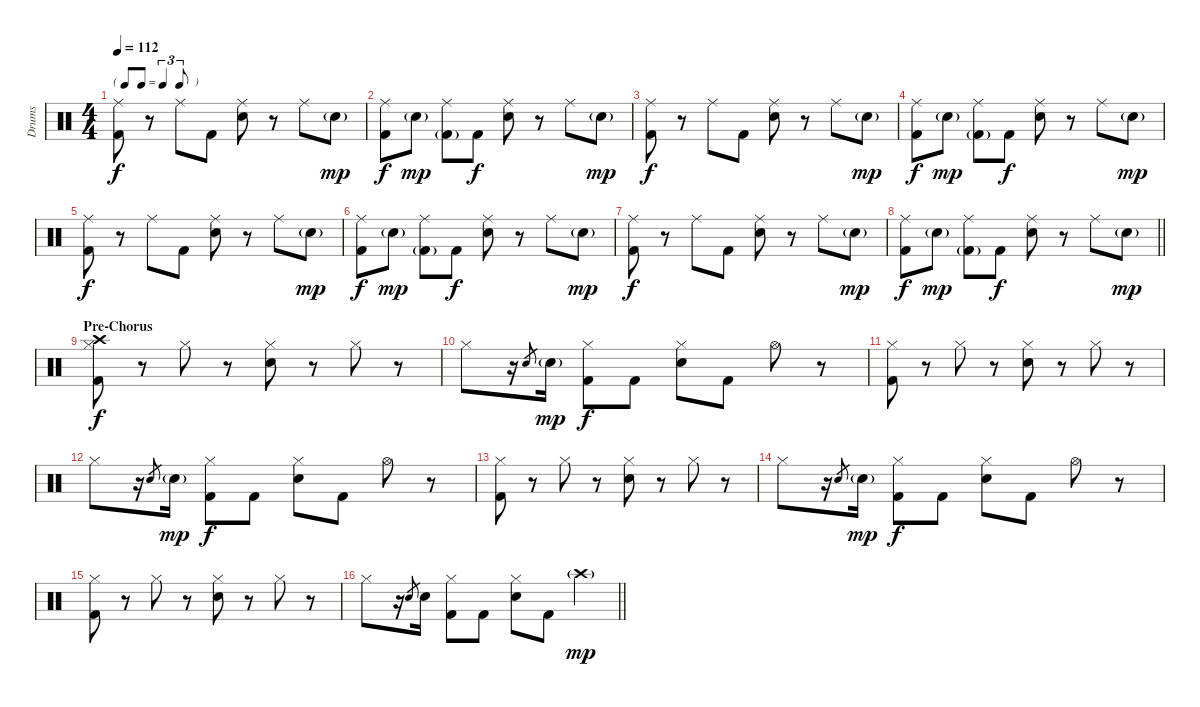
\track ("Drums" "Drums") {instrument percussion}
\staff {score}
\articulation defaults
\ts (4 4)
\tf triplet8th
\tempo 112
\clef neutral
\ks c
("Ride (middle)" "Kick (hit) 2").8{dy f} r.8 "Ride (middle)".8 "Kick (hit) 2".8 ("Ride (middle)" "Snare (hit) 2").8 r.8 "Ride (middle)".8 "Snare (hit) 2"{g}.8{dy mp} |
("Ride (middle)" "Kick (hit) 2").8{dy f} "Snare (hit) 2"{g}.8{dy mp} ("Ride (middle)" "Kick (hit) 2"{g}).8 "Kick (hit) 2".8{dy f} ("Ride (middle)" "Snare (hit) 2").8 r.8 "Ride (middle)".8 "Snare (hit) 2"{g}.8{dy mp} |
("Ride (middle)" "Kick (hit) 2").8{dy f} r.8 "Ride (middle)".8 "Kick (hit) 2".8 ("Ride (middle)" "Snare (hit) 2").8 r.8 "Ride (middle)".8 "Snare (hit) 2"{g}.8{dy mp} |
("Ride (middle)" "Kick (hit) 2").8{dy f} "Snare (hit) 2"{g}.8{dy mp} ("Ride (middle)" "Kick (hit) 2"{g}).8 "Kick (hit) 2".8{dy f} ("Ride (middle)" "Snare (hit) 2").8 r.8 "Ride (middle)".8 "Snare (hit) 2"{g}.8{dy mp} |
("Ride (middle)" "Kick (hit) 2").8{dy f} r.8 "Ride (middle)".8 "Kick (hit) 2".8 ("Ride (middle)" "Snare (hit) 2").8 r.8 "Ride (middle)".8 "Snare (hit) 2"{g}.8{dy mp} |
("Ride (middle)" "Kick (hit) 2").8{dy f} "Snare (hit) 2"{g}.8{dy mp} ("Ride (middle)" "Kick (hit) 2"{g}).8 "Kick (hit) 2".8{dy f} ("Ride (middle)" "Snare (hit) 2").8 r.8 "Ride (middle)".8 "Snare (hit) 2"{g}.8{dy mp} |
("Ride (middle)" "Kick (hit) 2").8{dy f} r.8 "Ride (middle)".8 "Kick (hit) 2".8 ("Ride (middle)" "Snare (hit) 2").8 r.8 "Ride (middle)".8 "Snare (hit) 2"{g}.8{dy mp} |
\barLineRight lightlight
("Ride (middle)" "Kick (hit) 2").8{dy f} "Snare (hit) 2"{g}.8{dy mp} ("Ride (middle)" "Kick (hit) 2"{g}).8 "Kick (hit) 2".8{dy f} ("Ride (middle)" "Snare (hit) 2").8 r.8 "Ride (middle)".8 "Snare (hit) 2"{g}.8{dy mp} |
\section ("" "Pre-Chorus")
("Crash high (hit)" "Hi-Hat (closed)" "Kick (hit) 2").8{dy f} r.8 "Hi-Hat (closed)".8 r.8 ("Hi-Hat (closed)" "Snare (hit) 2").8 r.8 "Hi-Hat (closed)".8 r.8 |
"Hi-Hat (closed)".8 r.16 "Snare (hit) 2".8{gr} "Snare (hit) 2"{g}.16{dy mp} ("Hi-Hat (closed)" "Kick (hit) 2").8{dy f} "Kick (hit) 2".8 ("Hi-Hat (closed)" "Snare (hit) 2").8 "Kick (hit) 2".8 "Hi-Hat (open)".8 r.8 |
("Hi-Hat (closed)" "Kick (hit) 2").8 r.8 "Hi-Hat (closed)".8 r.8 ("Hi-Hat (closed)" "Snare (hit) 2").8 r.8 "Hi-Hat (closed)".8 r.8 |
"Hi-Hat (closed)".8 r.16 "Snare (hit) 2".8{gr} "Snare (hit) 2"{g}.16{dy mp} ("Hi-Hat (closed)" "Kick (hit) 2").8{dy f} "Kick (hit) 2".8 ("Hi-Hat (closed)" "Snare (hit) 2").8 "Kick (hit) 2".8 "Hi-Hat (open)".8 r.8 |
("Hi-Hat (closed)" "Kick (hit) 2").8 r.8 "Hi-Hat (closed)".8 r.8 ("Hi-Hat (closed)" "Snare (hit) 2").8 r.8 "Hi-Hat (closed)".8 r.8 |
"Hi-Hat (closed)".8 r.16 "Snare (hit) 2".8{gr} "Snare (hit) 2"{g}.16{dy mp} ("Hi-Hat (closed)" "Kick (hit) 2").8{dy f} "Kick (hit) 2".8 ("Hi-Hat (closed)" "Snare (hit) 2").8 "Kick (hit) 2".8 "Hi-Hat (open)".8 r.8 |
("Hi-Hat (closed)" "Kick (hit) 2").8 r.8 "Hi-Hat (closed)".8 r.8 ("Hi-Hat (closed)" "Snare (hit) 2").8 r.8 "Hi-Hat (closed)".8 r.8 |
\barLineRight lightlight "Hi-Hat (closed)".8
r.16 "Snare (hit) 2".8{gr} "Snare (hit) 2".16 ("Hi-Hat (closed)" "Kick (hit) 2").8 "Kick (hit) 2".8 ("Hi-Hat (closed)" "Snare (hit) 2").8 "Kick (hit) 2".8 "Crash high (hit)"{g}.4{dy mp}
